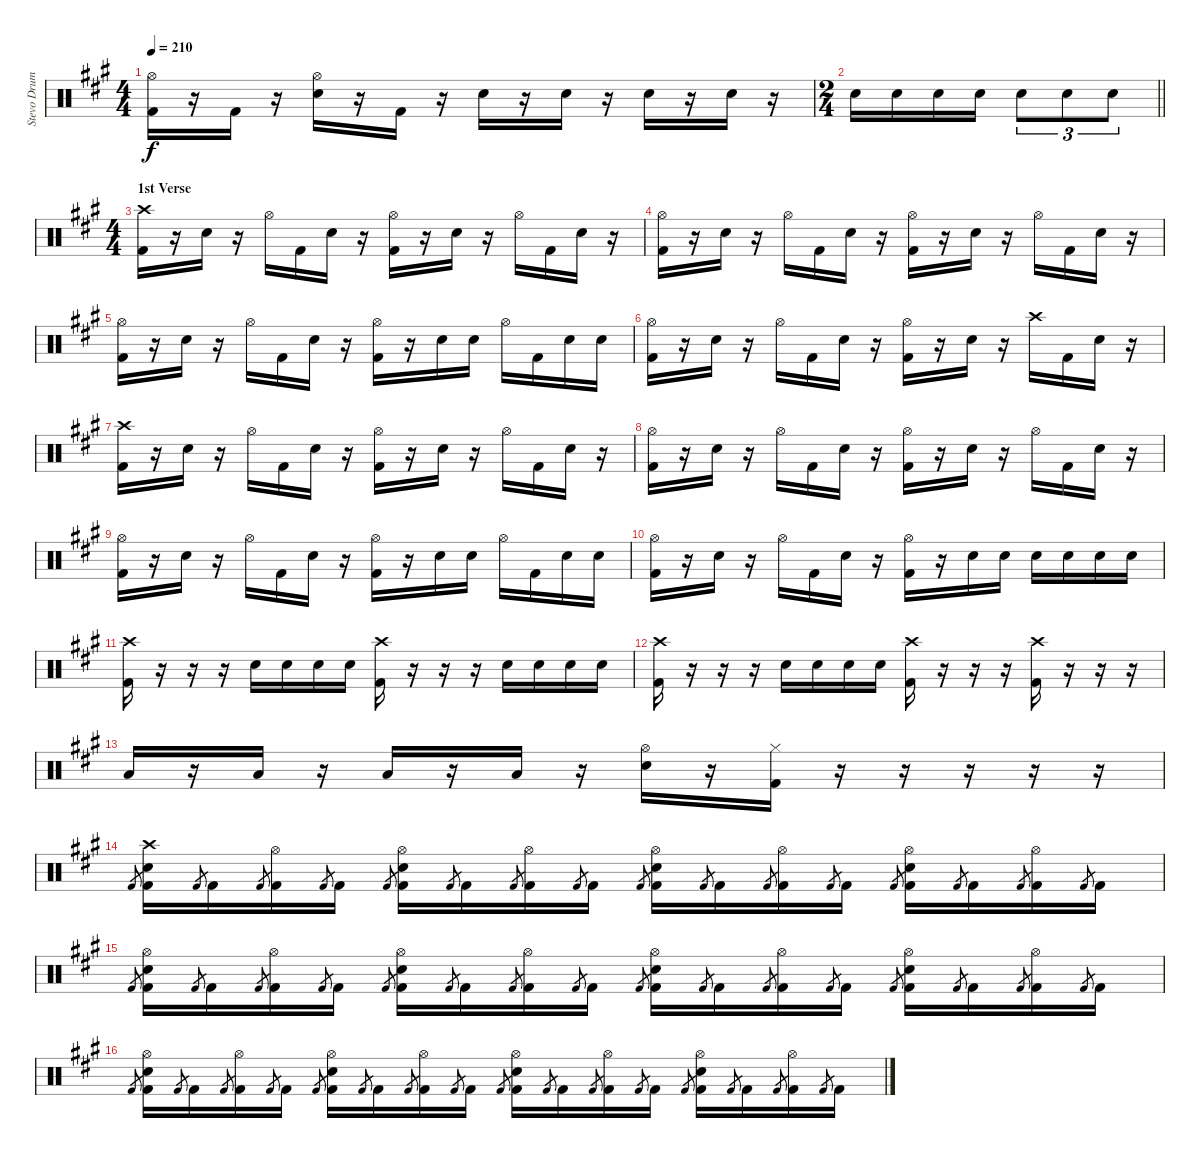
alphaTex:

\track ("Stevo Drums" "Stevo Drum") {instrument percussion}
\staff {score}
\articulation defaults
\ts (4 4)
\tempo 210
\clef neutral
\ks a
("Hi-Hat (open)" "Kick (hit) 2").16{dy f} r.16 "Kick (hit) 2".16 r.16 ("Hi-Hat (open)" "Snare (hit) 2").16 r.16 "Kick (hit) 2".16 r.16 "Snare (hit) 2".16 r.16 "Snare (hit) 2".16 r.16 "Snare (hit) 2".16 r.16 "Snare (hit) 2".16 r.16 |
\ts (2 4)
\barLineRight lightlight "Snare (hit) 2".16 "Snare (hit) 2".16 "Snare (hit) 2".16 "Snare (hit) 2".16 "Snare (hit) 2".8{tu (3 2)} "Snare (hit) 2".8{tu (3 2)} "Snare (hit) 2".8{tu (3 2)}
|
\ts (4 4)
\section ("" "1st Verse")
("Crash high (hit)" "Kick (hit) 2").16 r.16 "Snare (hit) 2".16 r.16 "Hi-Hat (open)".16 "Kick (hit) 2".16 "Snare (hit) 2".16 r.16 ("Hi-Hat (open)" "Kick (hit) 2").16 r.16 "Snare (hit) 2".16 r.16 "Hi-Hat (open)".16 "Kick (hit) 2".16 "Snare (hit) 2".16 r.16 |
("Hi-Hat (open)" "Kick (hit) 2").16 r.16 "Snare (hit) 2".16 r.16 "Hi-Hat (open)".16 "Kick (hit) 2".16 "Snare (hit) 2".16 r.16 ("Hi-Hat (open)" "Kick (hit) 2").16 r.16 "Snare (hit) 2".16 r.16 "Hi-Hat (open)".16 "Kick (hit) 2".16 "Snare (hit) 2".16 r.16 |
("Hi-Hat (open)" "Kick (hit) 2").16 r.16 "Snare (hit) 2".16 r.16 "Hi-Hat (open)".16 "Kick (hit) 2".16 "Snare (hit) 2".16 r.16 ("Hi-Hat (open)" "Kick (hit) 2").16 r.16 "Snare (hit) 2".16 "Snare (hit) 2".16 "Hi-Hat (open)".16 "Kick (hit) 2".16 "Snare (hit) 2".16 "Snare (hit) 2".16 |
("Hi-Hat (open)" "Kick (hit) 2").16 r.16 "Snare (hit) 2".16 r.16 "Hi-Hat (open)".16 "Kick (hit) 2".16 "Snare (hit) 2".16 r.16 ("Hi-Hat (open)" "Kick (hit) 2").16 r.16 "Snare (hit) 2".16 r.16 "Crash high (hit)".16 "Kick (hit) 2".16 "Snare (hit) 2".16 r.16 |
("Crash high (hit)" "Kick (hit) 2").16 r.16 "Snare (hit) 2".16 r.16 "Hi-Hat (open)".16 "Kick (hit) 2".16 "Snare (hit) 2".16 r.16 ("Hi-Hat (open)" "Kick (hit) 2").16 r.16 "Snare (hit) 2".16 r.16 "Hi-Hat (open)".16 "Kick (hit) 2".16 "Snare (hit) 2".16 r.16 |
("Hi-Hat (open)" "Kick (hit) 2").16 r.16 "Snare (hit) 2".16 r.16 "Hi-Hat (open)".16 "Kick (hit) 2".16 "Snare (hit) 2".16 r.16 ("Hi-Hat (open)" "Kick (hit) 2").16 r.16 "Snare (hit) 2".16 r.16 "Hi-Hat (open)".16 "Kick (hit) 2".16 "Snare (hit) 2".16 r.16 |
("Hi-Hat (open)" "Kick (hit) 2").16 r.16 "Snare (hit) 2".16 r.16 "Hi-Hat (open)".16 "Kick (hit) 2".16 "Snare (hit) 2".16 r.16 ("Hi-Hat (open)" "Kick (hit) 2").16 r.16 "Snare (hit) 2".16 "Snare (hit) 2".16 "Hi-Hat (open)".16 "Kick (hit) 2".16 "Snare (hit) 2".16 "Snare (hit) 2".16 |
("Hi-Hat (open)" "Kick (hit) 2").16 r.16 "Snare (hit) 2".16 r.16 "Hi-Hat (open)".16 "Kick (hit) 2".16 "Snare (hit) 2".16 r.16 ("Hi-Hat (open)" "Kick (hit) 2").16 r.16 "Snare (hit) 2".16 "Snare (hit) 2".16 "Snare (hit) 2".16 "Snare (hit) 2".16 "Snare (hit) 2".16 "Snare (hit) 2".16 |
("Crash high (hit)" "Kick (hit) 2").16 r.16 r.16 r.16 "Snare (hit) 2".16 "Snare (hit) 2".16 "Snare (hit) 2".16 "Snare (hit) 2".16 ("Crash high (hit)" "Kick (hit) 2").16 r.16 r.16 r.16 "Snare (hit) 2".16 "Snare (hit) 2".16 "Snare (hit) 2".16 "Snare (hit) 2".16 |
("Crash high (hit)" "Kick (hit) 2").16 r.16 r.16 r.16 "Snare (hit) 2".16 "Snare (hit) 2".16 "Snare (hit) 2".16 "Snare (hit) 2".16 ("Crash high (hit)" "Kick (hit) 2").16 r.16 r.16 r.16 ("Crash high (hit)" "Kick (hit) 2").16 r.16 r.16 r.16 |
"Low Floor Tom (hit)".16 r.16 "Low Floor Tom (hit)".16 r.16 "Low Floor Tom (hit)".16 r.16 "Low Floor Tom (hit)".16 r.16 ("Hi-Hat (open)" "Snare (hit) 2").16 r.16 ("Hi-Hat (closed)" "Kick (hit) 2").16 r.16 r.16 r.16 r.16 r.16 |
"Kick (hit) 2".8{gr} ("Crash high (hit)" "Snare (hit) 2" "Kick (hit) 2").16 "Kick (hit) 2".8{gr} "Kick (hit) 2".16 "Kick (hit) 2".8{gr} ("Hi-Hat (open)" "Kick (hit) 2").16 "Kick (hit) 2".8{gr} "Kick (hit) 2".16 "Kick (hit) 2".8{gr} ("Hi-Hat (open)" "Snare (hit) 2" "Kick (hit) 2").16 "Kick (hit) 2".8{gr} "Kick (hit) 2".16 "Kick (hit) 2".8{gr} ("Hi-Hat (open)" "Kick (hit) 2").16 "Kick (hit) 2".8{gr} "Kick (hit) 2".16 "Kick (hit) 2".8{gr} ("Hi-Hat (open)" "Snare (hit) 2" "Kick (hit) 2").16 "Kick (hit) 2".8{gr} "Kick (hit) 2".16 "Kick (hit) 2".8{gr} ("Hi-Hat (open)" "Kick (hit) 2").16 "Kick (hit) 2".8{gr} "Kick (hit) 2".16 "Kick (hit) 2".8{gr} ("Hi-Hat (open)" "Snare (hit) 2" "Kick (hit) 2").16 "Kick (hit) 2".8{gr} "Kick (hit) 2".16 "Kick (hit) 2".8{gr} ("Hi-Hat (open)" "Kick (hit) 2").16 "Kick (hit) 2".8{gr} "Kick (hit) 2".16 |
"Kick (hit) 2".8{gr} ("Hi-Hat (open)" "Snare (hit) 2" "Kick (hit) 2").16 "Kick (hit) 2".8{gr} "Kick (hit) 2".16 "Kick (hit) 2".8{gr} ("Hi-Hat (open)" "Kick (hit) 2").16 "Kick (hit) 2".8{gr} "Kick (hit) 2".16 "Kick (hit) 2".8{gr} ("Hi-Hat (open)" "Snare (hit) 2" "Kick (hit) 2").16 "Kick (hit) 2".8{gr} "Kick (hit) 2".16 "Kick (hit) 2".8{gr} ("Hi-Hat (open)" "Kick (hit) 2").16 "Kick (hit) 2".8{gr} "Kick (hit) 2".16 "Kick (hit) 2".8{gr} ("Hi-Hat (open)" "Snare (hit) 2" "Kick (hit) 2").16 "Kick (hit) 2".8{gr} "Kick (hit) 2".16 "Kick (hit) 2".8{gr} ("Hi-Hat (open)" "Kick (hit) 2").16 "Kick (hit) 2".8{gr} "Kick (hit) 2".16 "Kick (hit) 2".8{gr} ("Hi-Hat (open)" "Snare (hit) 2" "Kick (hit) 2").16 "Kick (hit) 2".8{gr} "Kick (hit) 2".16 "Kick (hit) 2".8{gr} ("Hi-Hat (open)" "Kick (hit) 2").16 "Kick (hit) 2".8{gr} "Kick (hit) 2".16 |
"Kick (hit) 2".8{gr} ("Hi-Hat (open)" "Snare (hit) 2" "Kick (hit) 2").16 "Kick (hit) 2".8{gr} "Kick (hit) 2".16 "Kick (hit) 2".8{gr} ("Hi-Hat (open)" "Kick (hit) 2").16 "Kick (hit) 2".8{gr} "Kick (hit) 2".16 "Kick (hit) 2".8{gr} ("Hi-Hat (open)" "Snare (hit) 2" "Kick (hit) 2").16 "Kick (hit) 2".8{gr} "Kick (hit) 2".16 "Kick (hit) 2".8{gr} ("Hi-Hat (open)" "Kick (hit) 2").16 "Kick (hit) 2".8{gr} "Kick (hit) 2".16 "Kick (hit) 2".8{gr} ("Hi-Hat (open)" "Snare (hit) 2" "Kick (hit) 2").16 "Kick (hit) 2".8{gr} "Kick (hit) 2".16 "Kick (hit) 2".8{gr} ("Hi-Hat (open)" "Kick (hit) 2").16 "Kick (hit) 2".8{gr} "Kick (hit) 2".16 "Kick (hit) 2".8{gr} ("Hi-Hat (open)" "Snare (hit) 2" "Kick (hit) 2").16 "Kick (hit) 2".8{gr} "Kick (hit) 2".16 "Kick (hit) 2".8{gr} ("Hi-Hat (open)" "Kick (hit) 2").16 "Kick (hit) 2".8{gr} "Kick (hit) 2".16
